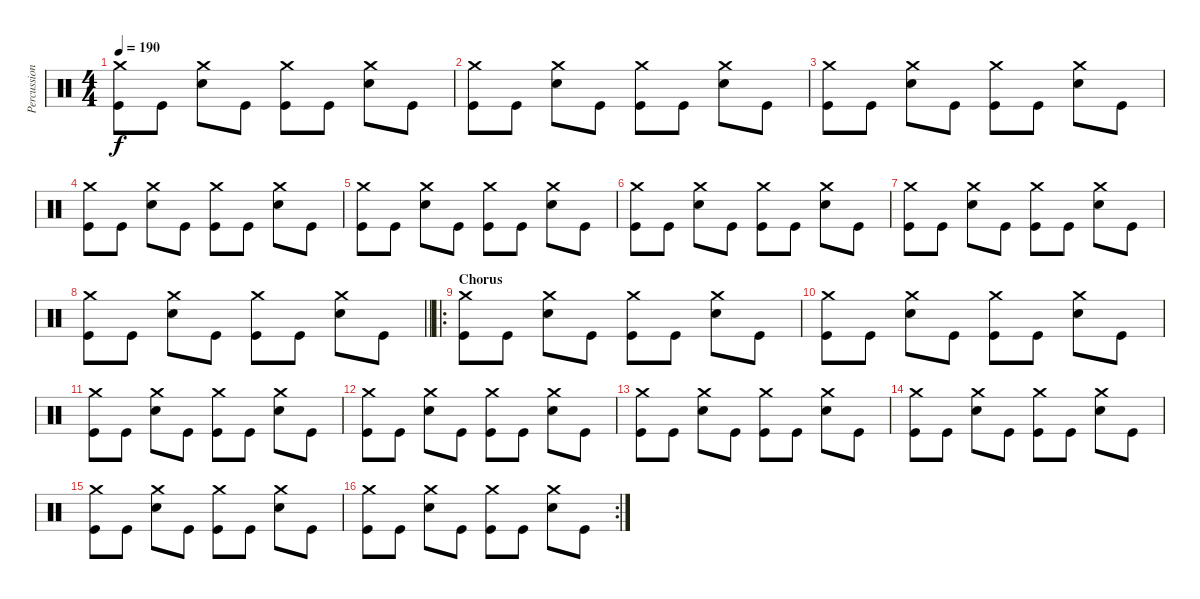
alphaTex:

\track ("Percussion" "Percussion") {instrument percussion}
\staff {score}
\articulation defaults
\ts (4 4)
\tempo 190
\clef neutral
\ks c
("Crash medium (hit)" "Kick (hit)").8{dy f} "Kick (hit)".8 ("Crash medium (hit)" "Snare (hit) 2").8 "Kick (hit)".8 ("Crash medium (hit)" "Kick (hit)").8 "Kick (hit)".8 ("Crash medium (hit)" "Snare (hit) 2").8 "Kick (hit)".8 |
("Crash medium (hit)" "Kick (hit)").8 "Kick (hit)".8 ("Crash medium (hit)" "Snare (hit) 2").8 "Kick (hit)".8 ("Crash medium (hit)" "Kick (hit)").8 "Kick (hit)".8 ("Crash medium (hit)" "Snare (hit) 2").8 "Kick (hit)".8 |
("Crash medium (hit)" "Kick (hit)").8 "Kick (hit)".8 ("Crash medium (hit)" "Snare (hit) 2").8 "Kick (hit)".8 ("Crash medium (hit)" "Kick (hit)").8 "Kick (hit)".8 ("Crash medium (hit)" "Snare (hit) 2").8 "Kick (hit)".8 |
("Crash medium (hit)" "Kick (hit)").8 "Kick (hit)".8 ("Crash medium (hit)" "Snare (hit) 2").8 "Kick (hit)".8 ("Crash medium (hit)" "Kick (hit)").8 "Kick (hit)".8 ("Crash medium (hit)" "Snare (hit) 2").8 "Kick (hit)".8 |
("Crash medium (hit)" "Kick (hit)").8 "Kick (hit)".8 ("Crash medium (hit)" "Snare (hit) 2").8 "Kick (hit)".8 ("Crash medium (hit)" "Kick (hit)").8 "Kick (hit)".8 ("Crash medium (hit)" "Snare (hit) 2").8 "Kick (hit)".8 |
("Crash medium (hit)" "Kick (hit)").8 "Kick (hit)".8 ("Crash medium (hit)" "Snare (hit) 2").8 "Kick (hit)".8 ("Crash medium (hit)" "Kick (hit)").8 "Kick (hit)".8 ("Crash medium (hit)" "Snare (hit) 2").8 "Kick (hit)".8 |
("Crash medium (hit)" "Kick (hit)").8 "Kick (hit)".8 ("Crash medium (hit)" "Snare (hit) 2").8 "Kick (hit)".8 ("Crash medium (hit)" "Kick (hit)").8 "Kick (hit)".8 ("Crash medium (hit)" "Snare (hit) 2").8 "Kick (hit)".8 |
\barLineRight lightlight
("Crash medium (hit)" "Kick (hit)").8 "Kick (hit)".8 ("Crash medium (hit)" "Snare (hit) 2").8 "Kick (hit)".8 ("Crash medium (hit)" "Kick (hit)").8 "Kick (hit)".8 ("Crash medium (hit)" "Snare (hit) 2").8 "Kick (hit)".8 |
\ro
\section ("" "Chorus")
("Crash medium (hit)" "Kick (hit)").8 "Kick (hit)".8 ("Crash medium (hit)" "Snare (hit) 2").8 "Kick (hit)".8 ("Crash medium (hit)" "Kick (hit)").8 "Kick (hit)".8 ("Crash medium (hit)" "Snare (hit) 2").8 "Kick (hit)".8 |
("Crash medium (hit)" "Kick (hit)").8 "Kick (hit)".8 ("Crash medium (hit)" "Snare (hit) 2").8 "Kick (hit)".8 ("Crash medium (hit)" "Kick (hit)").8 "Kick (hit)".8 ("Crash medium (hit)" "Snare (hit) 2").8 "Kick (hit)".8 |
("Crash medium (hit)" "Kick (hit)").8 "Kick (hit)".8 ("Crash medium (hit)" "Snare (hit) 2").8 "Kick (hit)".8 ("Crash medium (hit)" "Kick (hit)").8 "Kick (hit)".8 ("Crash medium (hit)" "Snare (hit) 2").8 "Kick (hit)".8 |
("Crash medium (hit)" "Kick (hit)").8 "Kick (hit)".8 ("Crash medium (hit)" "Snare (hit) 2").8 "Kick (hit)".8 ("Crash medium (hit)" "Kick (hit)").8 "Kick (hit)".8 ("Crash medium (hit)" "Snare (hit) 2").8 "Kick (hit)".8 |
("Crash medium (hit)" "Kick (hit)").8 "Kick (hit)".8 ("Crash medium (hit)" "Snare (hit) 2").8 "Kick (hit)".8 ("Crash medium (hit)" "Kick (hit)").8 "Kick (hit)".8 ("Crash medium (hit)" "Snare (hit) 2").8 "Kick (hit)".8 |
("Crash medium (hit)" "Kick (hit)").8 "Kick (hit)".8 ("Crash medium (hit)" "Snare (hit) 2").8 "Kick (hit)".8 ("Crash medium (hit)" "Kick (hit)").8 "Kick (hit)".8 ("Crash medium (hit)" "Snare (hit) 2").8 "Kick (hit)".8 |
("Crash medium (hit)" "Kick (hit)").8 "Kick (hit)".8 ("Crash medium (hit)" "Snare (hit) 2").8 "Kick (hit)".8 ("Crash medium (hit)" "Kick (hit)").8 "Kick (hit)".8 ("Crash medium (hit)" "Snare (hit) 2").8 "Kick (hit)".8 |
\rc 2
("Crash medium (hit)" "Kick (hit)").8 "Kick (hit)".8 ("Crash medium (hit)" "Snare (hit) 2").8 "Kick (hit)".8 ("Crash medium (hit)" "Kick (hit)").8 "Kick (hit)".8 ("Crash medium (hit)" "Snare (hit) 2").8 "Kick (hit)".8
